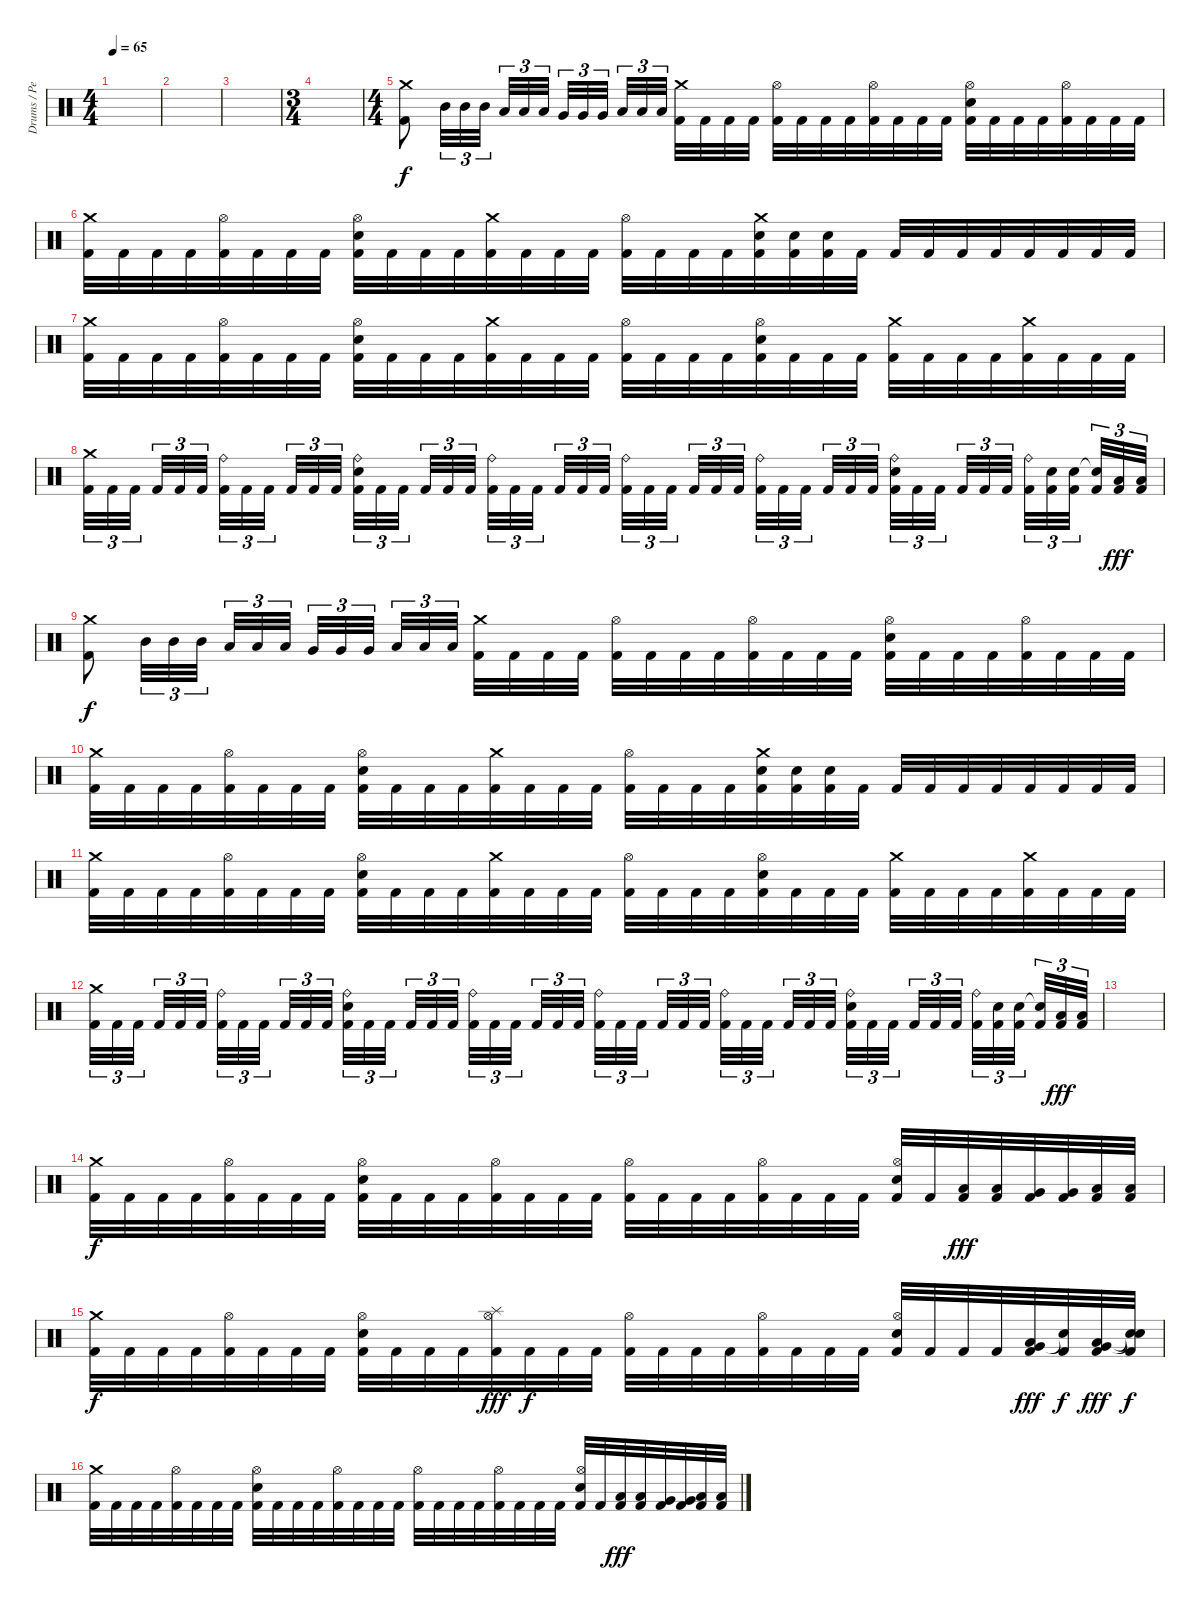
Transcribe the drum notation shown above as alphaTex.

\track ("Drums / Percussion" "Drums / Pe") {instrument percussion}
\staff {score}
\articulation defaults
\ts (4 4)
\tempo 65
\clef neutral
\ks c
|
|
|
\ts (3 4)
|
\ts (4 4)
("Crash medium (hit)" "Kick (hit) 2").8 "Mid Tom (hit)".32{tu (3 2)} "Mid Tom (hit)".32{tu (3 2)} "Mid Tom (hit)".32{tu (3 2)} "Low Tom (hit)".32{tu (3 2)} "Low Tom (hit)".32{tu (3 2)} "Low Tom (hit)".32{tu (3 2)} "Very Low Tom (hit)".32{tu (3 2)} "Very Low Tom (hit)".32{tu (3 2)} "Very Low Tom (hit)".32{tu (3 2)} "Low Floor Tom (hit)".32{tu (3 2)} "Low Floor Tom (hit)".32{tu (3 2)} "Low Floor Tom (hit)".32{tu (3 2)} ("Crash medium (hit)" "Kick (hit) 2").32 "Kick (hit) 2".32 "Kick (hit) 2".32 "Kick (hit) 2".32 ("Hi-Hat (open)" "Kick (hit) 2").32 "Kick (hit) 2".32 "Kick (hit) 2".32 "Kick (hit) 2".32 ("Hi-Hat (open)" "Kick (hit) 2").32 "Kick (hit) 2".32 "Kick (hit) 2".32 "Kick (hit) 2".32 ("Hi-Hat (open)" "Electric Snare (hit)" "Kick (hit) 2").32 "Kick (hit) 2".32 "Kick (hit) 2".32 "Kick (hit) 2".32 ("Hi-Hat (open)" "Kick (hit) 2").32 "Kick (hit) 2".32 "Kick (hit) 2".32 "Kick (hit) 2".32 |
("Crash medium (hit)" "Kick (hit) 2").32 "Kick (hit) 2".32 "Kick (hit) 2".32 "Kick (hit) 2".32 ("Hi-Hat (open)" "Kick (hit) 2").32 "Kick (hit) 2".32 "Kick (hit) 2".32 "Kick (hit) 2".32 ("Hi-Hat (open)" "Electric Snare (hit)" "Kick (hit) 2").32 "Kick (hit) 2".32 "Kick (hit) 2".32 "Kick (hit) 2".32 ("Crash medium (hit)" "Kick (hit) 2").32 "Kick (hit) 2".32 "Kick (hit) 2".32 "Kick (hit) 2".32 ("Hi-Hat (open)" "Kick (hit) 2").32 "Kick (hit) 2".32 "Kick (hit) 2".32 "Kick (hit) 2".32 ("Crash medium (hit)" "Electric Snare (hit)" "Kick (hit) 2").32 ("Electric Snare (hit)" "Kick (hit) 2").32 ("Electric Snare (hit)" "Kick (hit) 2").32 "Kick (hit) 2".32 "Kick (hit) 2".32 "Kick (hit) 2".32 "Kick (hit) 2".32 "Kick (hit) 2".32 "Kick (hit) 2".32 "Kick (hit) 2".32 "Kick (hit) 2".32 "Kick (hit) 2".32 |
("Crash medium (hit)" "Kick (hit) 2").32 "Kick (hit) 2".32 "Kick (hit) 2".32 "Kick (hit) 2".32 ("Hi-Hat (open)" "Kick (hit) 2").32 "Kick (hit) 2".32 "Kick (hit) 2".32 "Kick (hit) 2".32 ("Hi-Hat (open)" "Electric Snare (hit)" "Kick (hit) 2").32 "Kick (hit) 2".32 "Kick (hit) 2".32 "Kick (hit) 2".32 ("Crash medium (hit)" "Kick (hit) 2").32 "Kick (hit) 2".32 "Kick (hit) 2".32 "Kick (hit) 2".32 ("Hi-Hat (open)" "Kick (hit) 2").32 "Kick (hit) 2".32 "Kick (hit) 2".32 "Kick (hit) 2".32 ("Hi-Hat (open)" "Electric Snare (hit)" "Kick (hit) 2").32 "Kick (hit) 2".32 "Kick (hit) 2".32 "Kick (hit) 2".32 ("Crash medium (hit)" "Kick (hit) 2").32 "Kick (hit) 2".32 "Kick (hit) 2".32 "Kick (hit) 2".32 ("Crash medium (hit)" "Kick (hit) 2").32 "Kick (hit) 2".32 "Kick (hit) 2".32 "Kick (hit) 2".32 |
("Crash medium (hit)" "Kick (hit) 2").32{tu (3 2)} "Kick (hit) 2".32{tu (3 2)} "Kick (hit) 2".32{tu (3 2)} "Kick (hit) 2".32{tu (3 2)} "Kick (hit) 2".32{tu (3 2)} "Kick (hit) 2".32{tu (3 2)} ("Ride (bell)" "Kick (hit) 2").32{tu (3 2)} "Kick (hit) 2".32{tu (3 2)} "Kick (hit) 2".32{tu (3 2)} "Kick (hit) 2".32{tu (3 2)} "Kick (hit) 2".32{tu (3 2)} "Kick (hit) 2".32{tu (3 2)} ("Ride (bell)" "Electric Snare (hit)" "Kick (hit) 2").32{tu (3 2)} "Kick (hit) 2".32{tu (3 2)} "Kick (hit) 2".32{tu (3 2)} "Kick (hit) 2".32{tu (3 2)} "Kick (hit) 2".32{tu (3 2)} "Kick (hit) 2".32{tu (3 2)} ("Ride (bell)" "Kick (hit) 2").32{tu (3 2)} "Kick (hit) 2".32{tu (3 2)} "Kick (hit) 2".32{tu (3 2)} "Kick (hit) 2".32{tu (3 2)} "Kick (hit) 2".32{tu (3 2)} "Kick (hit) 2".32{tu (3 2)} ("Ride (bell)" "Kick (hit) 2").32{tu (3 2)} "Kick (hit) 2".32{tu (3 2)} "Kick (hit) 2".32{tu (3 2)} "Kick (hit) 2".32{tu (3 2)} "Kick (hit) 2".32{tu (3 2)} "Kick (hit) 2".32{tu (3 2)} ("Ride (bell)" "Kick (hit) 2").32{tu (3 2)} "Kick (hit) 2".32{tu (3 2)} "Kick (hit) 2".32{tu (3 2)} "Kick (hit) 2".32{tu (3 2)} "Kick (hit) 2".32{tu (3 2)} "Kick (hit) 2".32{tu (3 2)} ("Ride (bell)" "Electric Snare (hit)" "Kick (hit) 2").32{tu (3 2)} "Kick (hit) 2".32{tu (3 2)} "Kick (hit) 2".32{tu (3 2)} "Kick (hit) 2".32{tu (3 2)} "Kick (hit) 2".32{tu (3 2)} "Kick (hit) 2".32{tu (3 2)} ("Ride (bell)" "Kick (hit) 2").32{tu (3 2)} ("Electric Snare (hit)" "Kick (hit) 2").32{tu (3 2)} ("Electric Snare (hit)" "Kick (hit) 2").32{tu (3 2)} ("Electric Snare (hit)"{t} "Kick (hit) 2").32{tu (3 2)} ("Low Tom (hit)" "Kick (hit) 2").32{tu (3 2) dy fff} ("Low Tom (hit)" "Kick (hit) 2").32{tu (3 2)} |
("Crash medium (hit)" "Kick (hit) 2").8{dy f} "Mid Tom (hit)".32{tu (3 2)} "Mid Tom (hit)".32{tu (3 2)} "Mid Tom (hit)".32{tu (3 2)} "Low Tom (hit)".32{tu (3 2)} "Low Tom (hit)".32{tu (3 2)} "Low Tom (hit)".32{tu (3 2)} "Very Low Tom (hit)".32{tu (3 2)} "Very Low Tom (hit)".32{tu (3 2)} "Very Low Tom (hit)".32{tu (3 2)} "Low Floor Tom (hit)".32{tu (3 2)} "Low Floor Tom (hit)".32{tu (3 2)} "Low Floor Tom (hit)".32{tu (3 2)} ("Crash medium (hit)" "Kick (hit) 2").32 "Kick (hit) 2".32 "Kick (hit) 2".32 "Kick (hit) 2".32 ("Hi-Hat (open)" "Kick (hit) 2").32 "Kick (hit) 2".32 "Kick (hit) 2".32 "Kick (hit) 2".32 ("Hi-Hat (open)" "Kick (hit) 2").32 "Kick (hit) 2".32 "Kick (hit) 2".32 "Kick (hit) 2".32 ("Hi-Hat (open)" "Electric Snare (hit)" "Kick (hit) 2").32 "Kick (hit) 2".32 "Kick (hit) 2".32 "Kick (hit) 2".32 ("Hi-Hat (open)" "Kick (hit) 2").32 "Kick (hit) 2".32 "Kick (hit) 2".32 "Kick (hit) 2".32 |
("Crash medium (hit)" "Kick (hit) 2").32 "Kick (hit) 2".32 "Kick (hit) 2".32 "Kick (hit) 2".32 ("Hi-Hat (open)" "Kick (hit) 2").32 "Kick (hit) 2".32 "Kick (hit) 2".32 "Kick (hit) 2".32 ("Hi-Hat (open)" "Electric Snare (hit)" "Kick (hit) 2").32 "Kick (hit) 2".32 "Kick (hit) 2".32 "Kick (hit) 2".32 ("Crash medium (hit)" "Kick (hit) 2").32 "Kick (hit) 2".32 "Kick (hit) 2".32 "Kick (hit) 2".32 ("Hi-Hat (open)" "Kick (hit) 2").32 "Kick (hit) 2".32 "Kick (hit) 2".32 "Kick (hit) 2".32 ("Crash medium (hit)" "Electric Snare (hit)" "Kick (hit) 2").32 ("Electric Snare (hit)" "Kick (hit) 2").32 ("Electric Snare (hit)" "Kick (hit) 2").32 "Kick (hit) 2".32 "Kick (hit) 2".32 "Kick (hit) 2".32 "Kick (hit) 2".32 "Kick (hit) 2".32 "Kick (hit) 2".32 "Kick (hit) 2".32 "Kick (hit) 2".32 "Kick (hit) 2".32 |
("Crash medium (hit)" "Kick (hit) 2").32 "Kick (hit) 2".32 "Kick (hit) 2".32 "Kick (hit) 2".32 ("Hi-Hat (open)" "Kick (hit) 2").32 "Kick (hit) 2".32 "Kick (hit) 2".32 "Kick (hit) 2".32 ("Hi-Hat (open)" "Electric Snare (hit)" "Kick (hit) 2").32 "Kick (hit) 2".32 "Kick (hit) 2".32 "Kick (hit) 2".32 ("Crash medium (hit)" "Kick (hit) 2").32 "Kick (hit) 2".32 "Kick (hit) 2".32 "Kick (hit) 2".32 ("Hi-Hat (open)" "Kick (hit) 2").32 "Kick (hit) 2".32 "Kick (hit) 2".32 "Kick (hit) 2".32 ("Hi-Hat (open)" "Electric Snare (hit)" "Kick (hit) 2").32 "Kick (hit) 2".32 "Kick (hit) 2".32 "Kick (hit) 2".32 ("Crash medium (hit)" "Kick (hit) 2").32 "Kick (hit) 2".32 "Kick (hit) 2".32 "Kick (hit) 2".32 ("Crash medium (hit)" "Kick (hit) 2").32 "Kick (hit) 2".32 "Kick (hit) 2".32 "Kick (hit) 2".32 |
("Crash medium (hit)" "Kick (hit) 2").32{tu (3 2)} "Kick (hit) 2".32{tu (3 2)} "Kick (hit) 2".32{tu (3 2)} "Kick (hit) 2".32{tu (3 2)} "Kick (hit) 2".32{tu (3 2)} "Kick (hit) 2".32{tu (3 2)} ("Ride (bell)" "Kick (hit) 2").32{tu (3 2)} "Kick (hit) 2".32{tu (3 2)} "Kick (hit) 2".32{tu (3 2)} "Kick (hit) 2".32{tu (3 2)} "Kick (hit) 2".32{tu (3 2)} "Kick (hit) 2".32{tu (3 2)} ("Ride (bell)" "Electric Snare (hit)" "Kick (hit) 2").32{tu (3 2)} "Kick (hit) 2".32{tu (3 2)} "Kick (hit) 2".32{tu (3 2)} "Kick (hit) 2".32{tu (3 2)} "Kick (hit) 2".32{tu (3 2)} "Kick (hit) 2".32{tu (3 2)} ("Ride (bell)" "Kick (hit) 2").32{tu (3 2)} "Kick (hit) 2".32{tu (3 2)} "Kick (hit) 2".32{tu (3 2)} "Kick (hit) 2".32{tu (3 2)} "Kick (hit) 2".32{tu (3 2)} "Kick (hit) 2".32{tu (3 2)} ("Ride (bell)" "Kick (hit) 2").32{tu (3 2)} "Kick (hit) 2".32{tu (3 2)} "Kick (hit) 2".32{tu (3 2)} "Kick (hit) 2".32{tu (3 2)} "Kick (hit) 2".32{tu (3 2)} "Kick (hit) 2".32{tu (3 2)} ("Ride (bell)" "Kick (hit) 2").32{tu (3 2)} "Kick (hit) 2".32{tu (3 2)} "Kick (hit) 2".32{tu (3 2)} "Kick (hit) 2".32{tu (3 2)} "Kick (hit) 2".32{tu (3 2)} "Kick (hit) 2".32{tu (3 2)} ("Ride (bell)" "Electric Snare (hit)" "Kick (hit) 2").32{tu (3 2)} "Kick (hit) 2".32{tu (3 2)} "Kick (hit) 2".32{tu (3 2)} "Kick (hit) 2".32{tu (3 2)} "Kick (hit) 2".32{tu (3 2)} "Kick (hit) 2".32{tu (3 2)} ("Ride (bell)" "Kick (hit) 2").32{tu (3 2)} ("Electric Snare (hit)" "Kick (hit) 2").32{tu (3 2)} ("Electric Snare (hit)" "Kick (hit) 2").32{tu (3 2)} ("Electric Snare (hit)"{t} "Kick (hit) 2").32{tu (3 2)} ("Low Tom (hit)" "Kick (hit) 2").32{tu (3 2) dy fff} ("Low Tom (hit)" "Kick (hit) 2").32{tu (3 2)} |
|
("Crash medium (hit)" "Kick (hit) 2").32{dy f} "Kick (hit) 2".32 "Kick (hit) 2".32 "Kick (hit) 2".32 ("Hi-Hat (open)" "Kick (hit) 2").32 "Kick (hit) 2".32 "Kick (hit) 2".32 "Kick (hit) 2".32 ("Hi-Hat (open)" "Electric Snare (hit)" "Kick (hit) 2").32 "Kick (hit) 2".32 "Kick (hit) 2".32 "Kick (hit) 2".32 ("Hi-Hat (open)" "Kick (hit) 2").32 "Kick (hit) 2".32 "Kick (hit) 2".32 "Kick (hit) 2".32 ("Hi-Hat (open)" "Kick (hit) 2").32 "Kick (hit) 2".32 "Kick (hit) 2".32 "Kick (hit) 2".32 ("Hi-Hat (open)" "Kick (hit) 2").32 "Kick (hit) 2".32 "Kick (hit) 2".32 "Kick (hit) 2".32 ("Hi-Hat (open)" "Electric Snare (hit)" "Kick (hit) 2").32 "Kick (hit) 2".32 ("Low Tom (hit)" "Kick (hit) 2").32{dy fff} ("Low Tom (hit)" "Kick (hit) 2").32 ("Very Low Tom (hit)" "Kick (hit) 2").32 ("Very Low Tom (hit)" "Kick (hit) 2").32 ("Low Floor Tom (hit)" "Kick (hit) 2").32 ("Low Floor Tom (hit)" "Kick (hit) 2").32 |
("Crash medium (hit)" "Kick (hit) 2").32{dy f} "Kick (hit) 2".32 "Kick (hit) 2".32 "Kick (hit) 2".32 ("Hi-Hat (open)" "Kick (hit) 2").32 "Kick (hit) 2".32 "Kick (hit) 2".32 "Kick (hit) 2".32 ("Hi-Hat (open)" "Electric Snare (hit)" "Kick (hit) 2").32 "Kick (hit) 2".32 "Kick (hit) 2".32 "Kick (hit) 2".32 ("Splash (hit)" "Hi-Hat (open)" "Kick (hit) 2").32{dy fff} "Kick (hit) 2".32{dy f} "Kick (hit) 2".32 "Kick (hit) 2".32 ("Hi-Hat (open)" "Kick (hit) 2").32 "Kick (hit) 2".32 "Kick (hit) 2".32 "Kick (hit) 2".32 ("Hi-Hat (open)" "Kick (hit) 2").32 "Kick (hit) 2".32 "Kick (hit) 2".32 "Kick (hit) 2".32 ("Hi-Hat (open)" "Electric Snare (hit)" "Kick (hit) 2").32 "Kick (hit) 2".32 "Kick (hit) 2".32 "Kick (hit) 2".32 ("Very Low Tom (hit)" "Low Tom (hit)" "Kick (hit) 2").32{dy fff} ("Snare (hit)"{t} "Kick (hit) 2").32{dy f} ("Very Low Tom (hit)" "Low Tom (hit)" "Kick (hit) 2").32{dy fff} ("Snare (hit)"{t} "Snare (hit)"{t} "Kick (hit) 2").32{dy f} |
("Crash medium (hit)" "Kick (hit) 2").32 "Kick (hit) 2".32 "Kick (hit) 2".32 "Kick (hit) 2".32 ("Hi-Hat (open)" "Kick (hit) 2").32 "Kick (hit) 2".32 "Kick (hit) 2".32 "Kick (hit) 2".32 ("Hi-Hat (open)" "Electric Snare (hit)" "Kick (hit) 2").32 "Kick (hit) 2".32 "Kick (hit) 2".32 "Kick (hit) 2".32 ("Hi-Hat (open)" "Kick (hit) 2").32 "Kick (hit) 2".32 "Kick (hit) 2".32 "Kick (hit) 2".32 ("Hi-Hat (open)" "Kick (hit) 2").32 "Kick (hit) 2".32 "Kick (hit) 2".32 "Kick (hit) 2".32 ("Hi-Hat (open)" "Kick (hit) 2").32 "Kick (hit) 2".32 "Kick (hit) 2".32 "Kick (hit) 2".32 ("Hi-Hat (open)" "Electric Snare (hit)" "Kick (hit) 2").32 "Kick (hit) 2".32 ("Low Tom (hit)" "Kick (hit) 2").32{dy fff} ("Low Tom (hit)" "Kick (hit) 2").32 ("Very Low Tom (hit)" "Kick (hit) 2").32 ("Very Low Tom (hit)" "Kick (hit) 2").32 ("Low Floor Tom (hit)" "Kick (hit) 2").32 ("Low Floor Tom (hit)" "Kick (hit) 2").32
